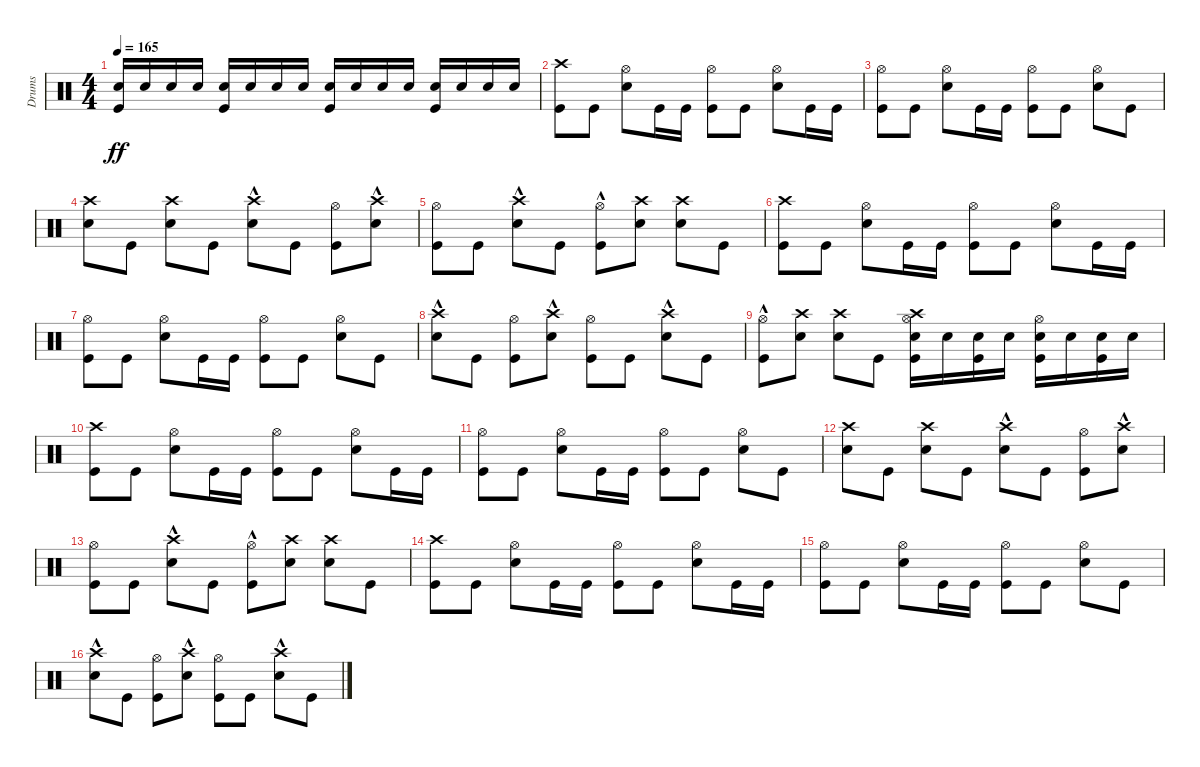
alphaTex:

\track ("Drums" "Drums") {instrument percussion}
\staff {score}
\articulation defaults
\ts (4 4)
\tempo 165
\clef neutral
\ks c
("Kick (hit)" "Snare (hit) 2").16{dy ff} "Snare (hit) 2".16 "Snare (hit) 2".16 "Snare (hit) 2".16 ("Kick (hit)" "Snare (hit) 2").16 "Snare (hit) 2".16 "Snare (hit) 2".16 "Snare (hit) 2".16 ("Kick (hit)" "Snare (hit) 2").16 "Snare (hit) 2".16 "Snare (hit) 2".16 "Snare (hit) 2".16 ("Kick (hit)" "Snare (hit) 2").16 "Snare (hit) 2".16 "Snare (hit) 2".16 "Snare (hit) 2".16 |
("Kick (hit)" "Crash high (hit)").8 "Kick (hit)".8 ("Snare (hit) 2" "Hi-Hat (open)").8 "Kick (hit)".16 "Kick (hit)".16 ("Kick (hit)" "Hi-Hat (open)").8 "Kick (hit)".8 ("Snare (hit) 2" "Hi-Hat (open)").8 "Kick (hit)".16 "Kick (hit)".16 |
("Kick (hit)" "Hi-Hat (open)").8 "Kick (hit)".8 ("Snare (hit) 2" "Hi-Hat (open)").8 "Kick (hit)".16 "Kick (hit)".16 ("Kick (hit)" "Hi-Hat (open)").8 "Kick (hit)".8 ("Snare (hit) 2" "Hi-Hat (open)").8 "Kick (hit)".8 |
("Snare (hit) 2" "Crash high (hit)").8 "Kick (hit)".8 ("Snare (hit) 2" "Crash high (hit)").8 "Kick (hit)".8 ("Snare (hit) 2"{hac} "Crash high (hit)"{hac}).8 "Kick (hit)".8 ("Kick (hit)" "Hi-Hat (open)").8 ("Snare (hit) 2"{hac} "Crash high (hit)"{hac}).8 |
("Kick (hit)" "Hi-Hat (open)").8 "Kick (hit)".8 ("Snare (hit) 2"{hac} "Crash high (hit)"{hac}).8 "Kick (hit)".8 ("Kick (hit)"{hac} "Hi-Hat (open)"{hac}).8 ("Snare (hit) 2" "Crash high (hit)").8 ("Snare (hit) 2" "Crash high (hit)").8 "Kick (hit)".8 |
("Kick (hit)" "Crash high (hit)").8 "Kick (hit)".8 ("Snare (hit) 2" "Hi-Hat (open)").8 "Kick (hit)".16 "Kick (hit)".16 ("Kick (hit)" "Hi-Hat (open)").8 "Kick (hit)".8 ("Snare (hit) 2" "Hi-Hat (open)").8 "Kick (hit)".16 "Kick (hit)".16 |
("Kick (hit)" "Hi-Hat (open)").8 "Kick (hit)".8 ("Snare (hit) 2" "Hi-Hat (open)").8 "Kick (hit)".16 "Kick (hit)".16 ("Kick (hit)" "Hi-Hat (open)").8 "Kick (hit)".8 ("Snare (hit) 2" "Hi-Hat (open)").8 "Kick (hit)".8 |
("Snare (hit) 2"{hac} "Crash high (hit)"{hac}).8 "Kick (hit)".8 ("Kick (hit)" "Hi-Hat (open)").8 ("Snare (hit) 2"{hac} "Crash high (hit)"{hac}).8 ("Kick (hit)" "Hi-Hat (open)").8 "Kick (hit)".8 ("Snare (hit) 2"{hac} "Crash high (hit)"{hac}).8 "Kick (hit)".8 |
("Kick (hit)"{hac} "Hi-Hat (open)").8 ("Snare (hit) 2" "Crash high (hit)").8 ("Snare (hit) 2" "Crash high (hit)").8 "Kick (hit)".8 ("Kick (hit)" "Snare (hit) 2" "Hi-Hat (open)" "Crash high (hit)").16 "Snare (hit) 2".16 ("Kick (hit)" "Snare (hit) 2").16 "Snare (hit) 2".16 ("Kick (hit)" "Snare (hit) 2" "Hi-Hat (open)").16 "Snare (hit) 2".16 ("Kick (hit)" "Snare (hit) 2").16 "Snare (hit) 2".16 |
("Kick (hit)" "Crash high (hit)").8 "Kick (hit)".8 ("Snare (hit) 2" "Hi-Hat (open)").8 "Kick (hit)".16 "Kick (hit)".16 ("Kick (hit)" "Hi-Hat (open)").8 "Kick (hit)".8 ("Snare (hit) 2" "Hi-Hat (open)").8 "Kick (hit)".16 "Kick (hit)".16 |
("Kick (hit)" "Hi-Hat (open)").8 "Kick (hit)".8 ("Snare (hit) 2" "Hi-Hat (open)").8 "Kick (hit)".16 "Kick (hit)".16 ("Kick (hit)" "Hi-Hat (open)").8 "Kick (hit)".8 ("Snare (hit) 2" "Hi-Hat (open)").8 "Kick (hit)".8 |
("Snare (hit) 2" "Crash high (hit)").8 "Kick (hit)".8 ("Snare (hit) 2" "Crash high (hit)").8 "Kick (hit)".8 ("Snare (hit) 2"{hac} "Crash high (hit)"{hac}).8 "Kick (hit)".8 ("Kick (hit)" "Hi-Hat (open)").8 ("Snare (hit) 2"{hac} "Crash high (hit)"{hac}).8 |
("Kick (hit)" "Hi-Hat (open)").8 "Kick (hit)".8 ("Snare (hit) 2"{hac} "Crash high (hit)"{hac}).8 "Kick (hit)".8 ("Kick (hit)"{hac} "Hi-Hat (open)"{hac}).8 ("Snare (hit) 2" "Crash high (hit)").8 ("Snare (hit) 2" "Crash high (hit)").8 "Kick (hit)".8 |
("Kick (hit)" "Crash high (hit)").8 "Kick (hit)".8 ("Snare (hit) 2" "Hi-Hat (open)").8 "Kick (hit)".16 "Kick (hit)".16 ("Kick (hit)" "Hi-Hat (open)").8 "Kick (hit)".8 ("Snare (hit) 2" "Hi-Hat (open)").8 "Kick (hit)".16 "Kick (hit)".16 |
("Kick (hit)" "Hi-Hat (open)").8 "Kick (hit)".8 ("Snare (hit) 2" "Hi-Hat (open)").8 "Kick (hit)".16 "Kick (hit)".16 ("Kick (hit)" "Hi-Hat (open)").8 "Kick (hit)".8 ("Snare (hit) 2" "Hi-Hat (open)").8 "Kick (hit)".8 |
("Snare (hit) 2"{hac} "Crash high (hit)"{hac}).8 "Kick (hit)".8 ("Kick (hit)" "Hi-Hat (open)").8 ("Snare (hit) 2"{hac} "Crash high (hit)"{hac}).8 ("Kick (hit)" "Hi-Hat (open)").8 "Kick (hit)".8 ("Snare (hit) 2"{hac} "Crash high (hit)"{hac}).8 "Kick (hit)".8
